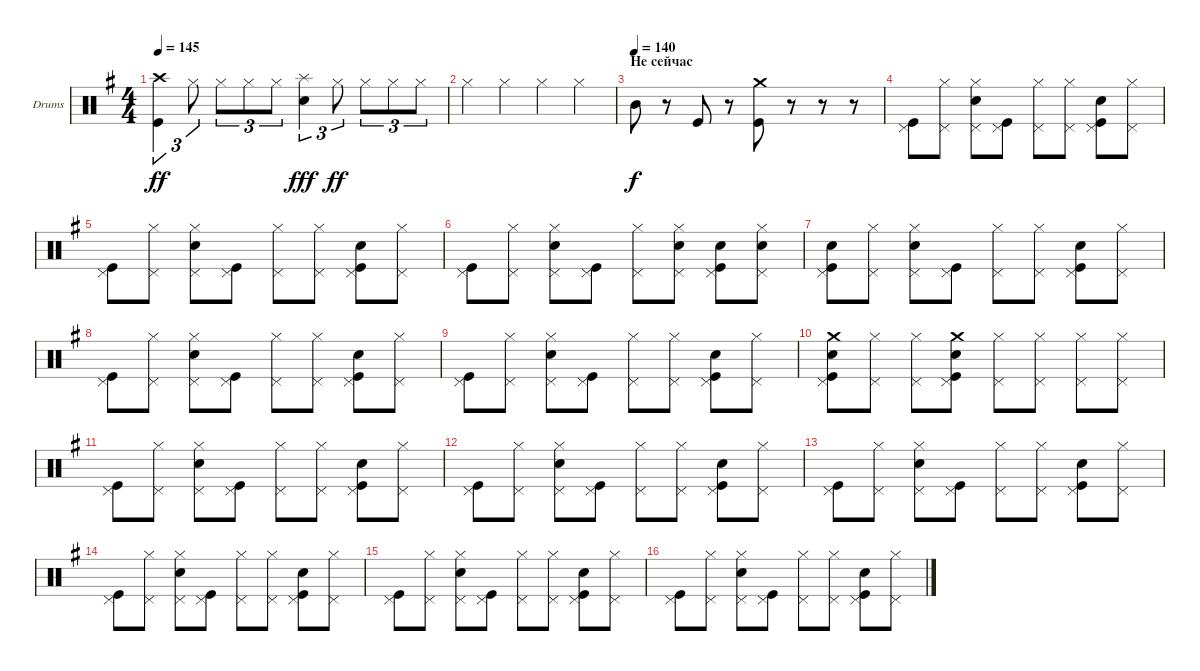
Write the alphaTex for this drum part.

\bracketExtendMode groupsimilarinstruments
\firstSystemTrackNameOrientation horizontal
\otherSystemsTrackNameOrientation horizontal
\track ("Александр Манякин" "Drums") {instrument percussion}
\staff {score}
\articulation defaults
\ts (4 4)
\tempo 145
\clef neutral
\ks eminor
("Crash high (hit)" "Kick (hit)").4{tu (3 2) dy ff} "Hi-Hat (closed)".8{tu (3 2)} "Hi-Hat (closed)".8{tu (3 2)} "Hi-Hat (closed)".8{tu (3 2)} "Hi-Hat (closed)".8{tu (3 2)} ("Splash (hit)" "Snare (hit) 2").4{tu (3 2) dy fff} "Hi-Hat (closed)".8{tu (3 2) dy ff} "Hi-Hat (closed)".8{tu (3 2)} "Hi-Hat (closed)".8{tu (3 2)} "Hi-Hat (closed)".8{tu (3 2)} |
"Hi-Hat (closed)".4 "Hi-Hat (closed)".4 "Hi-Hat (closed)".4 "Hi-Hat (closed)".4 |
\section ("" "Не сейчас")
\tempo (140)
"Mid Tom (hit)".8{dy f} r.8 "Kick (hit)".8 r.8 ("Crash medium (hit)" "Kick (hit)").8 r.8 r.8 r.8 |
("Pedal Hi-Hat (hit)" "Kick (hit)").8 ("Pedal Hi-Hat (hit)" "Hi-Hat (closed)").8 ("Pedal Hi-Hat (hit)" "Hi-Hat (closed)" "Snare (hit) 2").8 ("Pedal Hi-Hat (hit)" "Kick (hit)").8 ("Pedal Hi-Hat (hit)" "Hi-Hat (closed)").8 ("Pedal Hi-Hat (hit)" "Hi-Hat (closed)").8 ("Pedal Hi-Hat (hit)" "Snare (hit) 2" "Kick (hit)").8 ("Pedal Hi-Hat (hit)" "Hi-Hat (closed)").8 |
("Pedal Hi-Hat (hit)" "Kick (hit)").8 ("Pedal Hi-Hat (hit)" "Hi-Hat (closed)").8 ("Pedal Hi-Hat (hit)" "Hi-Hat (closed)" "Snare (hit) 2").8 ("Pedal Hi-Hat (hit)" "Kick (hit)").8 ("Pedal Hi-Hat (hit)" "Hi-Hat (closed)").8 ("Pedal Hi-Hat (hit)" "Hi-Hat (closed)").8 ("Pedal Hi-Hat (hit)" "Snare (hit) 2" "Kick (hit)").8 ("Pedal Hi-Hat (hit)" "Hi-Hat (closed)").8 |
("Pedal Hi-Hat (hit)" "Kick (hit)").8 ("Pedal Hi-Hat (hit)" "Hi-Hat (closed)").8 ("Pedal Hi-Hat (hit)" "Hi-Hat (closed)" "Snare (hit) 2").8 ("Pedal Hi-Hat (hit)" "Kick (hit)").8 ("Pedal Hi-Hat (hit)" "Hi-Hat (closed)").8 ("Pedal Hi-Hat (hit)" "Hi-Hat (closed)" "Snare (hit) 2").8 ("Pedal Hi-Hat (hit)" "Snare (hit) 2" "Kick (hit)").8 ("Pedal Hi-Hat (hit)" "Hi-Hat (closed)" "Snare (hit) 2").8 |
("Pedal Hi-Hat (hit)" "Snare (hit) 2" "Kick (hit)").8 ("Pedal Hi-Hat (hit)" "Hi-Hat (closed)").8 ("Pedal Hi-Hat (hit)" "Hi-Hat (closed)" "Snare (hit) 2").8 ("Pedal Hi-Hat (hit)" "Kick (hit)").8 ("Pedal Hi-Hat (hit)" "Hi-Hat (closed)").8 ("Pedal Hi-Hat (hit)" "Hi-Hat (closed)").8 ("Pedal Hi-Hat (hit)" "Snare (hit) 2" "Kick (hit)").8 ("Pedal Hi-Hat (hit)" "Hi-Hat (closed)").8 |
("Pedal Hi-Hat (hit)" "Kick (hit)").8 ("Pedal Hi-Hat (hit)" "Hi-Hat (closed)").8 ("Pedal Hi-Hat (hit)" "Hi-Hat (closed)" "Snare (hit) 2").8 ("Pedal Hi-Hat (hit)" "Kick (hit)").8 ("Pedal Hi-Hat (hit)" "Hi-Hat (closed)").8 ("Pedal Hi-Hat (hit)" "Hi-Hat (closed)").8 ("Pedal Hi-Hat (hit)" "Snare (hit) 2" "Kick (hit)").8 ("Pedal Hi-Hat (hit)" "Hi-Hat (closed)").8 |
("Pedal Hi-Hat (hit)" "Kick (hit)").8 ("Pedal Hi-Hat (hit)" "Hi-Hat (closed)").8 ("Pedal Hi-Hat (hit)" "Hi-Hat (closed)" "Snare (hit) 2").8 ("Pedal Hi-Hat (hit)" "Kick (hit)").8 ("Pedal Hi-Hat (hit)" "Hi-Hat (closed)").8 ("Pedal Hi-Hat (hit)" "Hi-Hat (closed)").8 ("Pedal Hi-Hat (hit)" "Snare (hit) 2" "Kick (hit)").8 ("Pedal Hi-Hat (hit)" "Hi-Hat (closed)").8 |
("Pedal Hi-Hat (hit)" "Crash medium (hit)" "Snare (hit) 2" "Kick (hit)").8 ("Pedal Hi-Hat (hit)" "Hi-Hat (closed)").8 ("Pedal Hi-Hat (hit)" "Hi-Hat (closed)").8 ("Pedal Hi-Hat (hit)" "Crash medium (hit)" "Snare (hit) 2" "Kick (hit)").8 ("Pedal Hi-Hat (hit)" "Hi-Hat (closed)").8 ("Pedal Hi-Hat (hit)" "Hi-Hat (closed)").8 ("Pedal Hi-Hat (hit)" "Hi-Hat (closed)").8 ("Pedal Hi-Hat (hit)" "Hi-Hat (closed)").8 |
("Pedal Hi-Hat (hit)" "Kick (hit)").8 ("Pedal Hi-Hat (hit)" "Hi-Hat (closed)").8 ("Pedal Hi-Hat (hit)" "Hi-Hat (closed)" "Snare (hit) 2").8 ("Pedal Hi-Hat (hit)" "Kick (hit)").8 ("Pedal Hi-Hat (hit)" "Hi-Hat (closed)").8 ("Pedal Hi-Hat (hit)" "Hi-Hat (closed)").8 ("Pedal Hi-Hat (hit)" "Snare (hit) 2" "Kick (hit)").8 ("Pedal Hi-Hat (hit)" "Hi-Hat (closed)").8 |
("Pedal Hi-Hat (hit)" "Kick (hit)").8 ("Pedal Hi-Hat (hit)" "Hi-Hat (closed)").8 ("Pedal Hi-Hat (hit)" "Hi-Hat (closed)" "Snare (hit) 2").8 ("Pedal Hi-Hat (hit)" "Kick (hit)").8 ("Pedal Hi-Hat (hit)" "Hi-Hat (closed)").8 ("Pedal Hi-Hat (hit)" "Hi-Hat (closed)").8 ("Pedal Hi-Hat (hit)" "Snare (hit) 2" "Kick (hit)").8 ("Pedal Hi-Hat (hit)" "Hi-Hat (closed)").8 |
("Pedal Hi-Hat (hit)" "Kick (hit)").8 ("Pedal Hi-Hat (hit)" "Hi-Hat (closed)").8 ("Pedal Hi-Hat (hit)" "Hi-Hat (closed)" "Snare (hit) 2").8 ("Pedal Hi-Hat (hit)" "Kick (hit)").8 ("Pedal Hi-Hat (hit)" "Hi-Hat (closed)").8 ("Pedal Hi-Hat (hit)" "Hi-Hat (closed)").8 ("Pedal Hi-Hat (hit)" "Snare (hit) 2" "Kick (hit)").8 ("Pedal Hi-Hat (hit)" "Hi-Hat (closed)").8 |
("Pedal Hi-Hat (hit)" "Kick (hit)").8 ("Pedal Hi-Hat (hit)" "Hi-Hat (closed)").8 ("Pedal Hi-Hat (hit)" "Hi-Hat (closed)" "Snare (hit) 2").8 ("Pedal Hi-Hat (hit)" "Kick (hit)").8 ("Pedal Hi-Hat (hit)" "Hi-Hat (closed)").8 ("Pedal Hi-Hat (hit)" "Hi-Hat (closed)").8 ("Pedal Hi-Hat (hit)" "Snare (hit) 2" "Kick (hit)").8 ("Pedal Hi-Hat (hit)" "Hi-Hat (closed)").8 |
("Pedal Hi-Hat (hit)" "Kick (hit)").8 ("Pedal Hi-Hat (hit)" "Hi-Hat (closed)").8 ("Pedal Hi-Hat (hit)" "Hi-Hat (closed)" "Snare (hit) 2").8 ("Pedal Hi-Hat (hit)" "Kick (hit)").8 ("Pedal Hi-Hat (hit)" "Hi-Hat (closed)").8 ("Pedal Hi-Hat (hit)" "Hi-Hat (closed)").8 ("Pedal Hi-Hat (hit)" "Snare (hit) 2" "Kick (hit)").8 ("Pedal Hi-Hat (hit)" "Hi-Hat (closed)").8 |
("Pedal Hi-Hat (hit)" "Kick (hit)").8 ("Pedal Hi-Hat (hit)" "Hi-Hat (closed)").8 ("Pedal Hi-Hat (hit)" "Hi-Hat (closed)" "Snare (hit) 2").8 ("Pedal Hi-Hat (hit)" "Kick (hit)").8 ("Pedal Hi-Hat (hit)" "Hi-Hat (closed)").8 ("Pedal Hi-Hat (hit)" "Hi-Hat (closed)").8 ("Pedal Hi-Hat (hit)" "Snare (hit) 2" "Kick (hit)").8 ("Pedal Hi-Hat (hit)" "Hi-Hat (closed)").8
